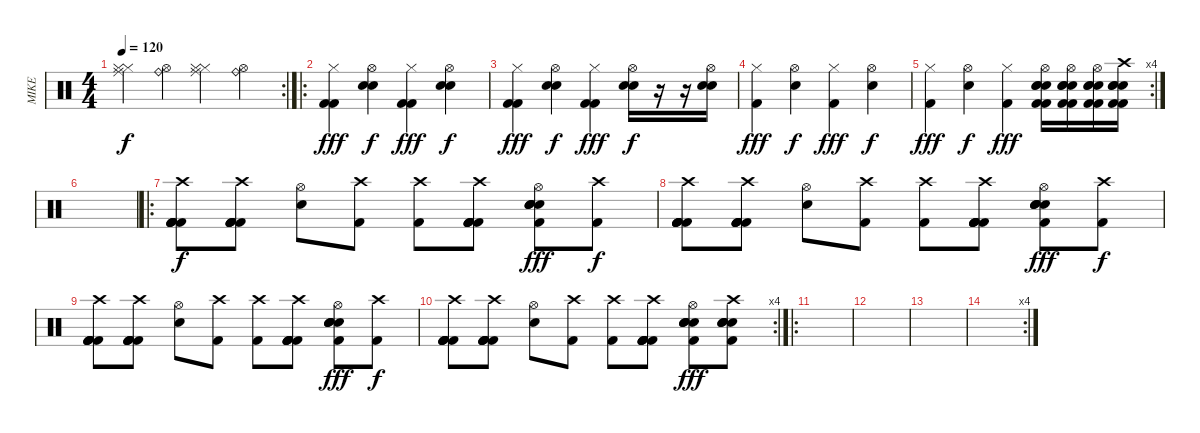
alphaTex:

\track ("MIKE" "MIKE") {instrument percussion}
\staff {score}
\articulation defaults
\rc 2
\ts (4 4)
\tempo 120
\clef neutral
\ks c
("Hi-Hat (closed)" "Hi-Hat (closed)" "Ride (middle)").4{dy f} ("Hi-Hat (open)" "Ride (bell)").4 ("Hi-Hat (closed)" "Hi-Hat (closed)" "Ride (middle)").4 ("Hi-Hat (open)" "Ride (bell)").4 |
\ro
("Hi-Hat (closed)" "Kick (hit) 2" "Kick (hit) 2").4{dy fff} ("Hi-Hat (open)" "Snare (hit) 2" "Snare (hit) 2").4{dy f} ("Hi-Hat (closed)" "Kick (hit) 2" "Kick (hit) 2").4{dy fff} ("Hi-Hat (open)" "Snare (hit) 2" "Snare (hit) 2").4{dy f} |
("Hi-Hat (closed)" "Kick (hit) 2" "Kick (hit) 2").4{dy fff} ("Hi-Hat (open)" "Snare (hit) 2" "Snare (hit) 2").4{dy f} ("Hi-Hat (closed)" "Kick (hit) 2" "Kick (hit) 2").4{dy fff} ("Hi-Hat (open)" "Snare (hit) 2" "Snare (hit) 2").16{dy f} r.16 r.16 ("Hi-Hat (open)" "Snare (hit) 2" "Snare (hit) 2").16 |
("Hi-Hat (closed)" "Kick (hit) 2").4{dy fff} ("Hi-Hat (open)" "Snare (hit) 2").4{dy f} ("Hi-Hat (closed)" "Kick (hit) 2").4{dy fff} ("Hi-Hat (open)" "Snare (hit) 2").4{dy f} |
\rc 4
("Hi-Hat (closed)" "Kick (hit) 2").4{dy fff} ("Hi-Hat (open)" "Snare (hit) 2").4{dy f} ("Hi-Hat (closed)" "Kick (hit) 2").4{dy fff} ("Hi-Hat (open)" "Kick (hit) 2" "Kick (hit) 2" "Snare (hit) 2" "Snare (hit) 2" "Snare (hit) 2").16 ("Hi-Hat (open)" "Kick (hit) 2" "Kick (hit) 2" "Snare (hit) 2" "Snare (hit) 2" "Snare (hit) 2").16 ("Hi-Hat (open)" "Kick (hit) 2" "Kick (hit) 2" "Snare (hit) 2" "Snare (hit) 2" "Snare (hit) 2").16 ("Crash high (hit)" "Kick (hit) 2" "Kick (hit) 2" "Snare (hit) 2" "Snare (hit) 2" "Snare (hit) 2").16 |
|
\ro
("Crash high (hit)" "Kick (hit) 2" "Kick (hit) 2" "Kick (hit) 2" "Kick (hit) 2" "Kick (hit) 2").8{dy f} ("Crash high (hit)" "Kick (hit) 2" "Kick (hit) 2" "Kick (hit) 2" "Kick (hit) 2" "Kick (hit) 2").8 ("Hi-Hat (open)" "Snare (hit) 2").8 ("Crash high (hit)" "Kick (hit) 2").8 ("Crash high (hit)" "Kick (hit) 2").8 ("Crash high (hit)" "Kick (hit) 2" "Kick (hit) 2" "Kick (hit) 2" "Kick (hit) 2" "Kick (hit) 2").8 ("Hi-Hat (open)" "Electric Snare (hit)" "Electric Snare (hit)" "Snare (hit) 2" "Snare (hit) 2" "Kick (hit) 2").8{dy fff} ("Crash high (hit)" "Kick (hit) 2").8{dy f} |
("Crash high (hit)" "Kick (hit) 2" "Kick (hit) 2" "Kick (hit) 2" "Kick (hit) 2" "Kick (hit) 2").8 ("Crash high (hit)" "Kick (hit) 2" "Kick (hit) 2" "Kick (hit) 2" "Kick (hit) 2" "Kick (hit) 2").8 ("Hi-Hat (open)" "Snare (hit) 2").8 ("Crash high (hit)" "Kick (hit) 2").8 ("Crash high (hit)" "Kick (hit) 2").8 ("Crash high (hit)" "Kick (hit) 2" "Kick (hit) 2" "Kick (hit) 2" "Kick (hit) 2" "Kick (hit) 2").8 ("Hi-Hat (open)" "Electric Snare (hit)" "Electric Snare (hit)" "Snare (hit) 2" "Snare (hit) 2" "Kick (hit) 2").8{dy fff} ("Crash high (hit)" "Kick (hit) 2").8{dy f} |
("Crash high (hit)" "Kick (hit) 2" "Kick (hit) 2" "Kick (hit) 2" "Kick (hit) 2" "Kick (hit) 2").8 ("Crash high (hit)" "Kick (hit) 2" "Kick (hit) 2" "Kick (hit) 2" "Kick (hit) 2" "Kick (hit) 2").8 ("Hi-Hat (open)" "Snare (hit) 2").8 ("Crash high (hit)" "Kick (hit) 2").8 ("Crash high (hit)" "Kick (hit) 2").8 ("Crash high (hit)" "Kick (hit) 2" "Kick (hit) 2" "Kick (hit) 2" "Kick (hit) 2" "Kick (hit) 2").8 ("Hi-Hat (open)" "Electric Snare (hit)" "Electric Snare (hit)" "Snare (hit) 2" "Snare (hit) 2" "Kick (hit) 2").8{dy fff} ("Crash high (hit)" "Kick (hit) 2").8{dy f} |
\rc 4
("Crash high (hit)" "Kick (hit) 2" "Kick (hit) 2" "Kick (hit) 2" "Kick (hit) 2" "Kick (hit) 2").8 ("Crash high (hit)" "Kick (hit) 2" "Kick (hit) 2" "Kick (hit) 2" "Kick (hit) 2" "Kick (hit) 2").8 ("Hi-Hat (open)" "Snare (hit) 2").8 ("Crash high (hit)" "Kick (hit) 2").8 ("Crash high (hit)" "Kick (hit) 2").8 ("Crash high (hit)" "Kick (hit) 2" "Kick (hit) 2" "Kick (hit) 2" "Kick (hit) 2" "Kick (hit) 2").8 ("Hi-Hat (open)" "Electric Snare (hit)" "Electric Snare (hit)" "Snare (hit) 2" "Snare (hit) 2" "Kick (hit) 2").8{dy fff} ("Crash high (hit)" "Electric Snare (hit)" "Electric Snare (hit)" "Snare (hit) 2" "Snare (hit) 2" "Kick (hit) 2").8 |
\ro
|
|
|
\rc 4
